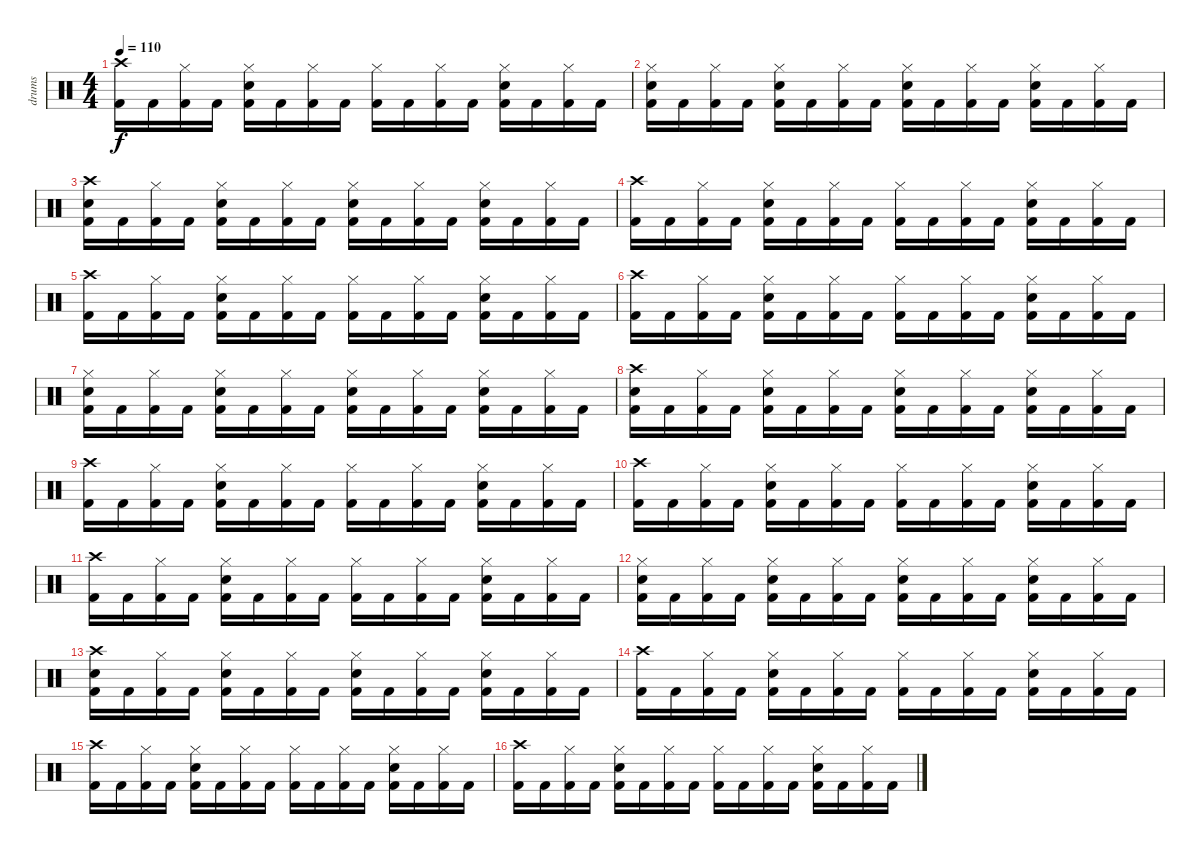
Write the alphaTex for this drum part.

\track ("drums" "drums") {instrument percussion}
\staff {score}
\articulation defaults
\ts (4 4)
\tempo 110
\clef neutral
\ks c
("Crash high (hit)" "Kick (hit) 2").16{dy f} "Kick (hit) 2".16 ("Hi-Hat (closed)" "Kick (hit) 2").16 "Kick (hit) 2".16 ("Hi-Hat (closed)" "Snare (hit) 2" "Kick (hit) 2").16 "Kick (hit) 2".16 ("Hi-Hat (closed)" "Kick (hit) 2").16 "Kick (hit) 2".16 ("Hi-Hat (closed)" "Kick (hit) 2").16 "Kick (hit) 2".16 ("Hi-Hat (closed)" "Kick (hit) 2").16 "Kick (hit) 2".16 ("Hi-Hat (closed)" "Snare (hit) 2" "Kick (hit) 2").16 "Kick (hit) 2".16 ("Hi-Hat (closed)" "Kick (hit) 2").16 "Kick (hit) 2".16 |
("Hi-Hat (closed)" "Snare (hit) 2" "Kick (hit) 2").16 "Kick (hit) 2".16 ("Hi-Hat (closed)" "Kick (hit) 2").16 "Kick (hit) 2".16 ("Hi-Hat (closed)" "Snare (hit) 2" "Kick (hit) 2").16 "Kick (hit) 2".16 ("Hi-Hat (closed)" "Kick (hit) 2").16 "Kick (hit) 2".16 ("Hi-Hat (closed)" "Snare (hit) 2" "Kick (hit) 2").16 "Kick (hit) 2".16 ("Hi-Hat (closed)" "Kick (hit) 2").16 "Kick (hit) 2".16 ("Hi-Hat (closed)" "Snare (hit) 2" "Kick (hit) 2").16 "Kick (hit) 2".16 ("Hi-Hat (closed)" "Kick (hit) 2").16 "Kick (hit) 2".16 |
("Crash high (hit)" "Snare (hit) 2" "Kick (hit) 2").16 "Kick (hit) 2".16 ("Hi-Hat (closed)" "Kick (hit) 2").16 "Kick (hit) 2".16 ("Hi-Hat (closed)" "Snare (hit) 2" "Kick (hit) 2").16 "Kick (hit) 2".16 ("Hi-Hat (closed)" "Kick (hit) 2").16 "Kick (hit) 2".16 ("Hi-Hat (closed)" "Snare (hit) 2" "Kick (hit) 2").16 "Kick (hit) 2".16 ("Hi-Hat (closed)" "Kick (hit) 2").16 "Kick (hit) 2".16 ("Hi-Hat (closed)" "Snare (hit) 2" "Kick (hit) 2").16 "Kick (hit) 2".16 ("Hi-Hat (closed)" "Kick (hit) 2").16 "Kick (hit) 2".16 |
("Crash high (hit)" "Kick (hit) 2").16 "Kick (hit) 2".16 ("Hi-Hat (closed)" "Kick (hit) 2").16 "Kick (hit) 2".16 ("Hi-Hat (closed)" "Snare (hit) 2" "Kick (hit) 2").16 "Kick (hit) 2".16 ("Hi-Hat (closed)" "Kick (hit) 2").16 "Kick (hit) 2".16 ("Hi-Hat (closed)" "Kick (hit) 2").16 "Kick (hit) 2".16 ("Hi-Hat (closed)" "Kick (hit) 2").16 "Kick (hit) 2".16 ("Hi-Hat (closed)" "Snare (hit) 2" "Kick (hit) 2").16 "Kick (hit) 2".16 ("Hi-Hat (closed)" "Kick (hit) 2").16 "Kick (hit) 2".16 |
("Crash high (hit)" "Kick (hit) 2").16 "Kick (hit) 2".16 ("Hi-Hat (closed)" "Kick (hit) 2").16 "Kick (hit) 2".16 ("Hi-Hat (closed)" "Snare (hit) 2" "Kick (hit) 2").16 "Kick (hit) 2".16 ("Hi-Hat (closed)" "Kick (hit) 2").16 "Kick (hit) 2".16 ("Hi-Hat (closed)" "Kick (hit) 2").16 "Kick (hit) 2".16 ("Hi-Hat (closed)" "Kick (hit) 2").16 "Kick (hit) 2".16 ("Hi-Hat (closed)" "Snare (hit) 2" "Kick (hit) 2").16 "Kick (hit) 2".16 ("Hi-Hat (closed)" "Kick (hit) 2").16 "Kick (hit) 2".16 |
("Crash high (hit)" "Kick (hit) 2").16 "Kick (hit) 2".16 ("Hi-Hat (closed)" "Kick (hit) 2").16 "Kick (hit) 2".16 ("Hi-Hat (closed)" "Snare (hit) 2" "Kick (hit) 2").16 "Kick (hit) 2".16 ("Hi-Hat (closed)" "Kick (hit) 2").16 "Kick (hit) 2".16 ("Hi-Hat (closed)" "Kick (hit) 2").16 "Kick (hit) 2".16 ("Hi-Hat (closed)" "Kick (hit) 2").16 "Kick (hit) 2".16 ("Hi-Hat (closed)" "Snare (hit) 2" "Kick (hit) 2").16 "Kick (hit) 2".16 ("Hi-Hat (closed)" "Kick (hit) 2").16 "Kick (hit) 2".16 |
("Hi-Hat (closed)" "Snare (hit) 2" "Kick (hit) 2").16 "Kick (hit) 2".16 ("Hi-Hat (closed)" "Kick (hit) 2").16 "Kick (hit) 2".16 ("Hi-Hat (closed)" "Snare (hit) 2" "Kick (hit) 2").16 "Kick (hit) 2".16 ("Hi-Hat (closed)" "Kick (hit) 2").16 "Kick (hit) 2".16 ("Hi-Hat (closed)" "Snare (hit) 2" "Kick (hit) 2").16 "Kick (hit) 2".16 ("Hi-Hat (closed)" "Kick (hit) 2").16 "Kick (hit) 2".16 ("Hi-Hat (closed)" "Snare (hit) 2" "Kick (hit) 2").16 "Kick (hit) 2".16 ("Hi-Hat (closed)" "Kick (hit) 2").16 "Kick (hit) 2".16 |
("Crash high (hit)" "Snare (hit) 2" "Kick (hit) 2").16 "Kick (hit) 2".16 ("Hi-Hat (closed)" "Kick (hit) 2").16 "Kick (hit) 2".16 ("Hi-Hat (closed)" "Snare (hit) 2" "Kick (hit) 2").16 "Kick (hit) 2".16 ("Hi-Hat (closed)" "Kick (hit) 2").16 "Kick (hit) 2".16 ("Hi-Hat (closed)" "Snare (hit) 2" "Kick (hit) 2").16 "Kick (hit) 2".16 ("Hi-Hat (closed)" "Kick (hit) 2").16 "Kick (hit) 2".16 ("Hi-Hat (closed)" "Snare (hit) 2" "Kick (hit) 2").16 "Kick (hit) 2".16 ("Hi-Hat (closed)" "Kick (hit) 2").16 "Kick (hit) 2".16 |
("Crash high (hit)" "Kick (hit) 2").16 "Kick (hit) 2".16 ("Hi-Hat (closed)" "Kick (hit) 2").16 "Kick (hit) 2".16 ("Hi-Hat (closed)" "Snare (hit) 2" "Kick (hit) 2").16 "Kick (hit) 2".16 ("Hi-Hat (closed)" "Kick (hit) 2").16 "Kick (hit) 2".16 ("Hi-Hat (closed)" "Kick (hit) 2").16 "Kick (hit) 2".16 ("Hi-Hat (closed)" "Kick (hit) 2").16 "Kick (hit) 2".16 ("Hi-Hat (closed)" "Snare (hit) 2" "Kick (hit) 2").16 "Kick (hit) 2".16 ("Hi-Hat (closed)" "Kick (hit) 2").16 "Kick (hit) 2".16 |
("Crash high (hit)" "Kick (hit) 2").16 "Kick (hit) 2".16 ("Hi-Hat (closed)" "Kick (hit) 2").16 "Kick (hit) 2".16 ("Hi-Hat (closed)" "Snare (hit) 2" "Kick (hit) 2").16 "Kick (hit) 2".16 ("Hi-Hat (closed)" "Kick (hit) 2").16 "Kick (hit) 2".16 ("Hi-Hat (closed)" "Kick (hit) 2").16 "Kick (hit) 2".16 ("Hi-Hat (closed)" "Kick (hit) 2").16 "Kick (hit) 2".16 ("Hi-Hat (closed)" "Snare (hit) 2" "Kick (hit) 2").16 "Kick (hit) 2".16 ("Hi-Hat (closed)" "Kick (hit) 2").16 "Kick (hit) 2".16 |
("Crash high (hit)" "Kick (hit) 2").16 "Kick (hit) 2".16 ("Hi-Hat (closed)" "Kick (hit) 2").16 "Kick (hit) 2".16 ("Hi-Hat (closed)" "Snare (hit) 2" "Kick (hit) 2").16 "Kick (hit) 2".16 ("Hi-Hat (closed)" "Kick (hit) 2").16 "Kick (hit) 2".16 ("Hi-Hat (closed)" "Kick (hit) 2").16 "Kick (hit) 2".16 ("Hi-Hat (closed)" "Kick (hit) 2").16 "Kick (hit) 2".16 ("Hi-Hat (closed)" "Snare (hit) 2" "Kick (hit) 2").16 "Kick (hit) 2".16 ("Hi-Hat (closed)" "Kick (hit) 2").16 "Kick (hit) 2".16 |
("Hi-Hat (closed)" "Snare (hit) 2" "Kick (hit) 2").16 "Kick (hit) 2".16 ("Hi-Hat (closed)" "Kick (hit) 2").16 "Kick (hit) 2".16 ("Hi-Hat (closed)" "Snare (hit) 2" "Kick (hit) 2").16 "Kick (hit) 2".16 ("Hi-Hat (closed)" "Kick (hit) 2").16 "Kick (hit) 2".16 ("Hi-Hat (closed)" "Snare (hit) 2" "Kick (hit) 2").16 "Kick (hit) 2".16 ("Hi-Hat (closed)" "Kick (hit) 2").16 "Kick (hit) 2".16 ("Hi-Hat (closed)" "Snare (hit) 2" "Kick (hit) 2").16 "Kick (hit) 2".16 ("Hi-Hat (closed)" "Kick (hit) 2").16 "Kick (hit) 2".16 |
("Crash high (hit)" "Snare (hit) 2" "Kick (hit) 2").16 "Kick (hit) 2".16 ("Hi-Hat (closed)" "Kick (hit) 2").16 "Kick (hit) 2".16 ("Hi-Hat (closed)" "Snare (hit) 2" "Kick (hit) 2").16 "Kick (hit) 2".16 ("Hi-Hat (closed)" "Kick (hit) 2").16 "Kick (hit) 2".16 ("Hi-Hat (closed)" "Snare (hit) 2" "Kick (hit) 2").16 "Kick (hit) 2".16 ("Hi-Hat (closed)" "Kick (hit) 2").16 "Kick (hit) 2".16 ("Hi-Hat (closed)" "Snare (hit) 2" "Kick (hit) 2").16 "Kick (hit) 2".16 ("Hi-Hat (closed)" "Kick (hit) 2").16 "Kick (hit) 2".16 |
("Crash high (hit)" "Kick (hit) 2").16 "Kick (hit) 2".16 ("Hi-Hat (closed)" "Kick (hit) 2").16 "Kick (hit) 2".16 ("Hi-Hat (closed)" "Snare (hit) 2" "Kick (hit) 2").16 "Kick (hit) 2".16 ("Hi-Hat (closed)" "Kick (hit) 2").16 "Kick (hit) 2".16 ("Hi-Hat (closed)" "Kick (hit) 2").16 "Kick (hit) 2".16 ("Hi-Hat (closed)" "Kick (hit) 2").16 "Kick (hit) 2".16 ("Hi-Hat (closed)" "Snare (hit) 2" "Kick (hit) 2").16 "Kick (hit) 2".16 ("Hi-Hat (closed)" "Kick (hit) 2").16 "Kick (hit) 2".16 |
("Crash high (hit)" "Kick (hit) 2").16 "Kick (hit) 2".16 ("Hi-Hat (closed)" "Kick (hit) 2").16 "Kick (hit) 2".16 ("Hi-Hat (closed)" "Snare (hit) 2" "Kick (hit) 2").16 "Kick (hit) 2".16 ("Hi-Hat (closed)" "Kick (hit) 2").16 "Kick (hit) 2".16 ("Hi-Hat (closed)" "Kick (hit) 2").16 "Kick (hit) 2".16 ("Hi-Hat (closed)" "Kick (hit) 2").16 "Kick (hit) 2".16 ("Hi-Hat (closed)" "Snare (hit) 2" "Kick (hit) 2").16 "Kick (hit) 2".16 ("Hi-Hat (closed)" "Kick (hit) 2").16 "Kick (hit) 2".16 |
("Crash high (hit)" "Kick (hit) 2").16 "Kick (hit) 2".16 ("Hi-Hat (closed)" "Kick (hit) 2").16 "Kick (hit) 2".16 ("Hi-Hat (closed)" "Snare (hit) 2" "Kick (hit) 2").16 "Kick (hit) 2".16 ("Hi-Hat (closed)" "Kick (hit) 2").16 "Kick (hit) 2".16 ("Hi-Hat (closed)" "Kick (hit) 2").16 "Kick (hit) 2".16 ("Hi-Hat (closed)" "Kick (hit) 2").16 "Kick (hit) 2".16 ("Hi-Hat (closed)" "Snare (hit) 2" "Kick (hit) 2").16 "Kick (hit) 2".16 ("Hi-Hat (closed)" "Kick (hit) 2").16 "Kick (hit) 2".16
